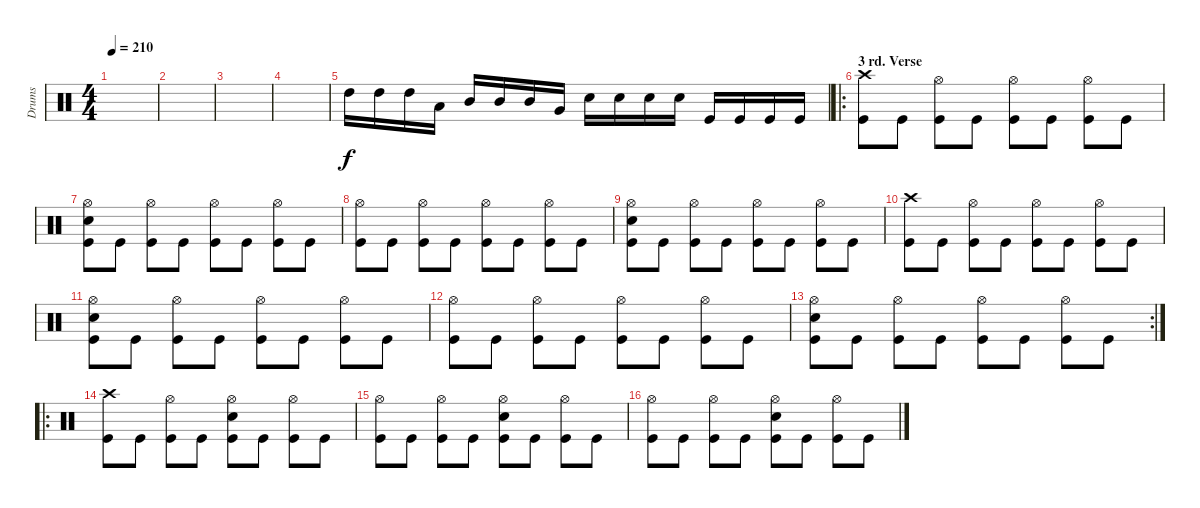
\track ("Drums" "Drums") {instrument percussion}
\staff {score}
\articulation defaults
\ts (4 4)
\tempo 210
\clef neutral
\ks c
|
|
|
|
"High Tom (hit)".16 "High Tom (hit)".16 "High Tom (hit)".16 "Low Tom (hit)".16 "Mid Tom (hit)".16 "Mid Tom (hit)".16 "Mid Tom (hit)".16 "Very Low Tom (hit)".16 "Snare (hit) 2".16 "Snare (hit) 2".16 "Snare (hit) 2".16 "Snare (hit) 2".16 "Kick (hit)".16 "Kick (hit)".16 "Kick (hit)".16 "Kick (hit)".16 |
\ro
\section ("" "3 rd. Verse")
("Crash high (hit)" "Kick (hit)").8 "Kick (hit)".8 ("Hi-Hat (open)" "Kick (hit)").8 "Kick (hit)".8 ("Hi-Hat (open)" "Kick (hit)").8 "Kick (hit)".8 ("Hi-Hat (open)" "Kick (hit)").8 "Kick (hit)".8 |
("Hi-Hat (open)" "Snare (hit) 2" "Kick (hit)").8 "Kick (hit)".8 ("Hi-Hat (open)" "Kick (hit)").8 "Kick (hit)".8 ("Hi-Hat (open)" "Kick (hit)").8 "Kick (hit)".8 ("Hi-Hat (open)" "Kick (hit)").8 "Kick (hit)".8 |
("Hi-Hat (open)" "Kick (hit)").8 "Kick (hit)".8 ("Hi-Hat (open)" "Kick (hit)").8 "Kick (hit)".8 ("Hi-Hat (open)" "Kick (hit)").8 "Kick (hit)".8 ("Hi-Hat (open)" "Kick (hit)").8 "Kick (hit)".8 |
("Hi-Hat (open)" "Snare (hit) 2" "Kick (hit)").8 "Kick (hit)".8 ("Hi-Hat (open)" "Kick (hit)").8 "Kick (hit)".8 ("Hi-Hat (open)" "Kick (hit)").8 "Kick (hit)".8 ("Hi-Hat (open)" "Kick (hit)").8 "Kick (hit)".8 |
("Crash high (hit)" "Kick (hit)").8 "Kick (hit)".8 ("Hi-Hat (open)" "Kick (hit)").8 "Kick (hit)".8 ("Hi-Hat (open)" "Kick (hit)").8 "Kick (hit)".8 ("Hi-Hat (open)" "Kick (hit)").8 "Kick (hit)".8 |
("Hi-Hat (open)" "Snare (hit) 2" "Kick (hit)").8 "Kick (hit)".8 ("Hi-Hat (open)" "Kick (hit)").8 "Kick (hit)".8 ("Hi-Hat (open)" "Kick (hit)").8 "Kick (hit)".8 ("Hi-Hat (open)" "Kick (hit)").8 "Kick (hit)".8 |
("Hi-Hat (open)" "Kick (hit)").8 "Kick (hit)".8 ("Hi-Hat (open)" "Kick (hit)").8 "Kick (hit)".8 ("Hi-Hat (open)" "Kick (hit)").8 "Kick (hit)".8 ("Hi-Hat (open)" "Kick (hit)").8 "Kick (hit)".8 |
\rc 2
("Hi-Hat (open)" "Snare (hit) 2" "Kick (hit)").8 "Kick (hit)".8 ("Hi-Hat (open)" "Kick (hit)").8 "Kick (hit)".8 ("Hi-Hat (open)" "Kick (hit)").8 "Kick (hit)".8 ("Hi-Hat (open)" "Kick (hit)").8 "Kick (hit)".8 |
\ro
("Crash high (hit)" "Kick (hit)").8 "Kick (hit)".8 ("Hi-Hat (open)" "Kick (hit)").8 "Kick (hit)".8 ("Hi-Hat (open)" "Snare (hit) 2" "Kick (hit)").8 "Kick (hit)".8 ("Hi-Hat (open)" "Kick (hit)").8 "Kick (hit)".8 |
("Hi-Hat (open)" "Kick (hit)").8 "Kick (hit)".8 ("Hi-Hat (open)" "Kick (hit)").8 "Kick (hit)".8 ("Hi-Hat (open)" "Snare (hit) 2" "Kick (hit)").8 "Kick (hit)".8 ("Hi-Hat (open)" "Kick (hit)").8 "Kick (hit)".8 |
("Hi-Hat (open)" "Kick (hit)").8 "Kick (hit)".8 ("Hi-Hat (open)" "Kick (hit)").8 "Kick (hit)".8 ("Hi-Hat (open)" "Snare (hit) 2" "Kick (hit)").8 "Kick (hit)".8 ("Hi-Hat (open)" "Kick (hit)").8 "Kick (hit)".8
